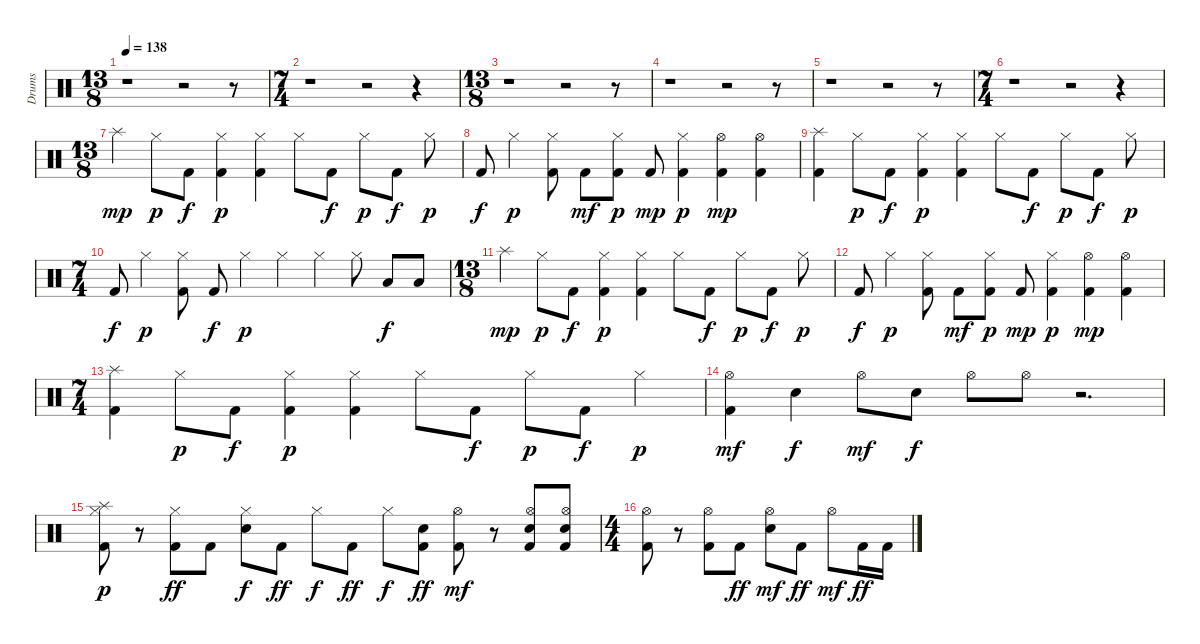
\track ("Drums" "Drums") {instrument percussion}
\staff {score}
\articulation defaults
\ts (13 8)
\tempo 138
\clef neutral
\ks c
r.1{dy ff} r.2 r.8 |
\ts (7 4)
r.1 r.2 r.4 |
\ts (13 8)
r.1 r.2 r.8 |
r.1 r.2 r.8 |
r.1 r.2 r.8 |
\ts (7 4)
r.1 r.2 r.4 |
\ts (13 8)
"Splash (hit)".4{dy mp} "Hi-Hat (closed)".8{dy p} "Kick (hit) 2".8{dy f} ("Kick (hit) 2" "Hi-Hat (closed)").4{dy p} ("Kick (hit) 2" "Hi-Hat (closed)").4 "Hi-Hat (closed)".8 "Kick (hit) 2".8{dy f} "Hi-Hat (closed)".8{dy p} "Kick (hit) 2".8{dy f} "Hi-Hat (closed)".8{dy p} |
"Kick (hit) 2".8{dy f} "Hi-Hat (closed)".4{dy p} ("Kick (hit) 2" "Hi-Hat (closed)").8 "Kick (hit) 2".8{dy mf} ("Kick (hit) 2" "Hi-Hat (closed)").8{dy p} "Kick (hit) 2".8{dy mp} ("Kick (hit) 2" "Hi-Hat (closed)").4{dy p} ("Kick (hit) 2" "Hi-Hat (open)").4{dy mp} ("Kick (hit) 2" "Hi-Hat (open)").4 |
("Kick (hit) 2" "Splash (hit)").4 "Hi-Hat (closed)".8{dy p} "Kick (hit) 2".8{dy f} ("Kick (hit) 2" "Hi-Hat (closed)").4{dy p} ("Kick (hit) 2" "Hi-Hat (closed)").4 "Hi-Hat (closed)".8 "Kick (hit) 2".8{dy f} "Hi-Hat (closed)".8{dy p} "Kick (hit) 2".8{dy f} "Hi-Hat (closed)".8{dy p} |
\ts (7 4)
"Kick (hit) 2".8{dy f} "Hi-Hat (closed)".4{dy p} ("Kick (hit) 2" "Hi-Hat (closed)").8 "Kick (hit) 2".8{dy f} "Hi-Hat (closed)".4{dy p} "Hi-Hat (closed)".4 "Hi-Hat (closed)".4 "Hi-Hat (closed)".8 "Low Tom (hit)".8{dy f} "Low Tom (hit)".8 |
\ts (13 8)
"Splash (hit)".4{dy mp} "Hi-Hat (closed)".8{dy p} "Kick (hit) 2".8{dy f} ("Kick (hit) 2" "Hi-Hat (closed)").4{dy p} ("Kick (hit) 2" "Hi-Hat (closed)").4 "Hi-Hat (closed)".8 "Kick (hit) 2".8{dy f} "Hi-Hat (closed)".8{dy p} "Kick (hit) 2".8{dy f} "Hi-Hat (closed)".8{dy p} |
"Kick (hit) 2".8{dy f} "Hi-Hat (closed)".4{dy p} ("Kick (hit) 2" "Hi-Hat (closed)").8 "Kick (hit) 2".8{dy mf} ("Kick (hit) 2" "Hi-Hat (closed)").8{dy p} "Kick (hit) 2".8{dy mp} ("Kick (hit) 2" "Hi-Hat (closed)").4{dy p} ("Kick (hit) 2" "Hi-Hat (open)").4{dy mp} ("Kick (hit) 2" "Hi-Hat (open)").4 |
\ts (7 4)
("Kick (hit) 2" "Splash (hit)").4 "Hi-Hat (closed)".8{dy p} "Kick (hit) 2".8{dy f} ("Kick (hit) 2" "Hi-Hat (closed)").4{dy p} ("Kick (hit) 2" "Hi-Hat (closed)").4 "Hi-Hat (closed)".8 "Kick (hit) 2".8{dy f} "Hi-Hat (closed)".8{dy p} "Kick (hit) 2".8{dy f} "Hi-Hat (closed)".4{dy p} |
("Kick (hit) 2" "Hi-Hat (open)").4{dy mf} "Electric Snare (hit)".4{dy f} "Hi-Hat (open)".8{dy mf} "Electric Snare (hit)".8{dy f} "Hi-Hat (open)".8 "Hi-Hat (open)".8 r.2{d} |
("Kick (hit) 2" "Hi-Hat (closed)" "Splash (hit)").8{dy p} r.8 ("Kick (hit) 2" "Hi-Hat (closed)").8{dy ff} "Kick (hit) 2".8 ("Electric Snare (hit)" "Hi-Hat (closed)").8{dy f} "Kick (hit) 2".8{dy ff} "Hi-Hat (closed)".8{dy f} "Kick (hit) 2".8{dy ff} "Hi-Hat (closed)".8{dy f} ("Kick (hit) 2" "Electric Snare (hit)").8{dy ff} ("Kick (hit) 2" "Hi-Hat (open)").8{dy mf} r.8 ("Kick (hit) 2" "Electric Snare (hit)" "Hi-Hat (open)").8 ("Kick (hit) 2" "Electric Snare (hit)" "Hi-Hat (open)").8 |
\ts (4 4)
("Kick (hit) 2" "Hi-Hat (open)").8 r.8 ("Kick (hit) 2" "Hi-Hat (open)").8 "Kick (hit) 2".8{dy ff} ("Electric Snare (hit)" "Hi-Hat (open)").8{dy mf} "Kick (hit) 2".8{dy ff} "Hi-Hat (open)".8{dy mf} "Kick (hit) 2".16{dy ff} "Kick (hit) 2".16
